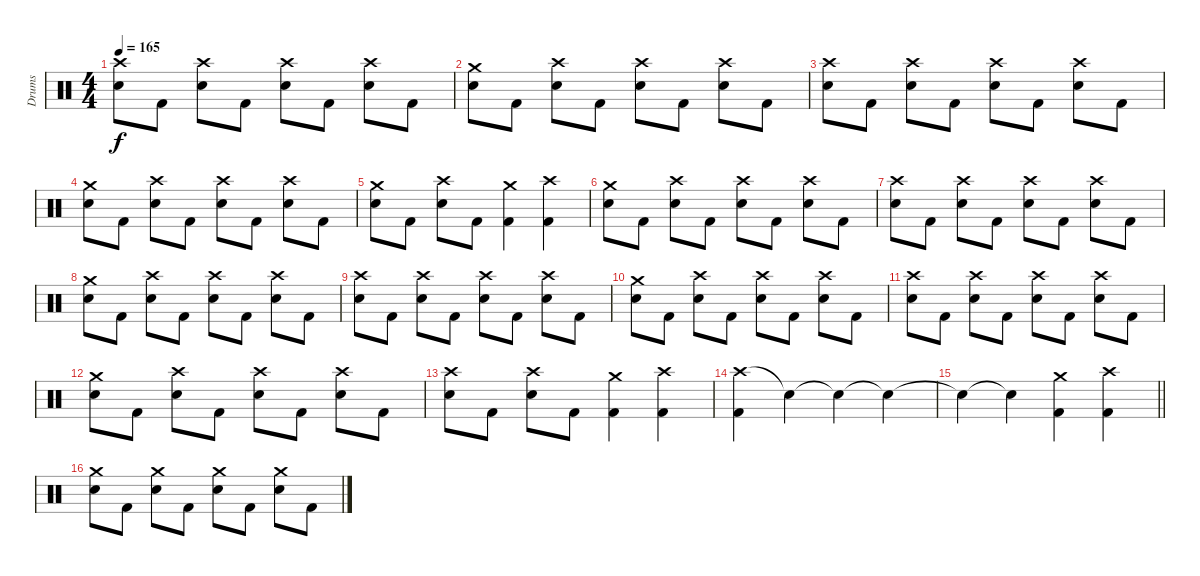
\track ("Drums" "Drums") {instrument percussion}
\staff {score}
\articulation defaults
\ts (4 4)
\tempo 165
\clef neutral
\ks c
("Crash high (hit)" "Electric Snare (hit)").8{dy f} "Kick (hit) 2".8 ("Crash high (hit)" "Electric Snare (hit)").8 "Kick (hit) 2".8 ("Crash high (hit)" "Electric Snare (hit)").8 "Kick (hit) 2".8 ("Crash high (hit)" "Electric Snare (hit)").8 "Kick (hit) 2".8 |
("Crash medium (hit)" "Electric Snare (hit)").8 "Kick (hit) 2".8 ("Crash high (hit)" "Electric Snare (hit)").8 "Kick (hit) 2".8 ("Crash high (hit)" "Electric Snare (hit)").8 "Kick (hit) 2".8 ("Crash high (hit)" "Electric Snare (hit)").8 "Kick (hit) 2".8 |
("Crash high (hit)" "Electric Snare (hit)").8 "Kick (hit) 2".8 ("Crash high (hit)" "Electric Snare (hit)").8 "Kick (hit) 2".8 ("Crash high (hit)" "Electric Snare (hit)").8 "Kick (hit) 2".8 ("Crash high (hit)" "Electric Snare (hit)").8 "Kick (hit) 2".8 |
("Crash medium (hit)" "Electric Snare (hit)").8 "Kick (hit) 2".8 ("Crash high (hit)" "Electric Snare (hit)").8 "Kick (hit) 2".8 ("Crash high (hit)" "Electric Snare (hit)").8 "Kick (hit) 2".8 ("Crash high (hit)" "Electric Snare (hit)").8 "Kick (hit) 2".8 |
("Crash medium (hit)" "Electric Snare (hit)").8 "Kick (hit) 2".8 ("Crash high (hit)" "Electric Snare (hit)").8 "Kick (hit) 2".8 ("Crash medium (hit)" "Kick (hit) 2").4 ("Crash high (hit)" "Kick (hit) 2").4 |
("Crash medium (hit)" "Electric Snare (hit)").8 "Kick (hit) 2".8 ("Crash high (hit)" "Electric Snare (hit)").8 "Kick (hit) 2".8 ("Crash high (hit)" "Electric Snare (hit)").8 "Kick (hit) 2".8 ("Crash high (hit)" "Electric Snare (hit)").8 "Kick (hit) 2".8 |
("Crash high (hit)" "Electric Snare (hit)").8 "Kick (hit) 2".8 ("Crash high (hit)" "Electric Snare (hit)").8 "Kick (hit) 2".8 ("Crash high (hit)" "Electric Snare (hit)").8 "Kick (hit) 2".8 ("Crash high (hit)" "Electric Snare (hit)").8 "Kick (hit) 2".8 |
("Crash medium (hit)" "Electric Snare (hit)").8 "Kick (hit) 2".8 ("Crash high (hit)" "Electric Snare (hit)").8 "Kick (hit) 2".8 ("Crash high (hit)" "Electric Snare (hit)").8 "Kick (hit) 2".8 ("Crash high (hit)" "Electric Snare (hit)").8 "Kick (hit) 2".8 |
("Crash high (hit)" "Electric Snare (hit)").8 "Kick (hit) 2".8 ("Crash high (hit)" "Electric Snare (hit)").8 "Kick (hit) 2".8 ("Crash high (hit)" "Electric Snare (hit)").8 "Kick (hit) 2".8 ("Crash high (hit)" "Electric Snare (hit)").8 "Kick (hit) 2".8 |
("Crash medium (hit)" "Electric Snare (hit)").8 "Kick (hit) 2".8 ("Crash high (hit)" "Electric Snare (hit)").8 "Kick (hit) 2".8 ("Crash high (hit)" "Electric Snare (hit)").8 "Kick (hit) 2".8 ("Crash high (hit)" "Electric Snare (hit)").8 "Kick (hit) 2".8 |
("Crash high (hit)" "Electric Snare (hit)").8 "Kick (hit) 2".8 ("Crash high (hit)" "Electric Snare (hit)").8 "Kick (hit) 2".8 ("Crash high (hit)" "Electric Snare (hit)").8 "Kick (hit) 2".8 ("Crash high (hit)" "Electric Snare (hit)").8 "Kick (hit) 2".8 |
("Crash medium (hit)" "Electric Snare (hit)").8 "Kick (hit) 2".8 ("Crash high (hit)" "Electric Snare (hit)").8 "Kick (hit) 2".8 ("Crash high (hit)" "Electric Snare (hit)").8 "Kick (hit) 2".8 ("Crash high (hit)" "Electric Snare (hit)").8 "Kick (hit) 2".8 |
("Crash high (hit)" "Electric Snare (hit)").8 "Kick (hit) 2".8 ("Crash high (hit)" "Electric Snare (hit)").8 "Kick (hit) 2".8 ("Crash medium (hit)" "Kick (hit) 2").4 ("Crash high (hit)" "Kick (hit) 2").4 |
("Crash high (hit)" "Kick (hit) 2").4 "Snare (hit)"{t}.4 "Snare (hit)"{t}.4 "Snare (hit)"{t}.4 |
\barLineRight lightlight "Snare (hit)"{t}.4 "Snare (hit)"{t}.4
("Crash medium (hit)" "Kick (hit) 2").4 ("Crash high (hit)" "Kick (hit) 2").4 |
\section ("" "")
("Crash medium (hit)" "Electric Snare (hit)").8 "Kick (hit) 2".8 ("Crash medium (hit)" "Electric Snare (hit)").8 "Kick (hit) 2".8 ("Crash medium (hit)" "Electric Snare (hit)").8 "Kick (hit) 2".8 ("Crash medium (hit)" "Electric Snare (hit)").8 "Kick (hit) 2".8
